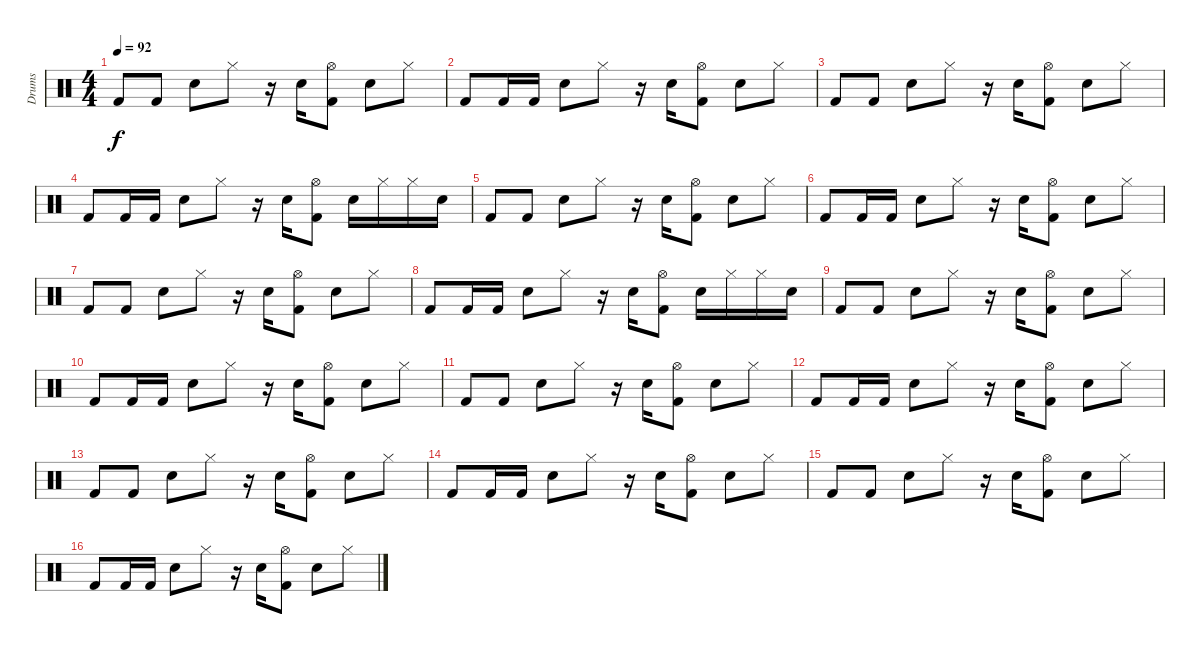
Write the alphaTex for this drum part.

\track ("Drums" "Drums") {instrument percussion}
\staff {score}
\articulation defaults
\ts (4 4)
\tempo 92
\clef neutral
\ks c "Kick (hit) 2".8{dy f} "Kick (hit) 2".8 "Snare (hit) 2".8 "Hi-Hat (closed)".8
r.16 "Snare (hit) 2".16 ("Hi-Hat (open)" "Kick (hit) 2").8 "Snare (hit) 2".8 "Hi-Hat (closed)".8 |
"Kick (hit) 2".8 "Kick (hit) 2".16 "Kick (hit) 2".16 "Snare (hit) 2".8 "Hi-Hat (closed)".8 r.16 "Snare (hit) 2".16 ("Hi-Hat (open)" "Kick (hit) 2").8 "Snare (hit) 2".8 "Hi-Hat (closed)".8 |
"Kick (hit) 2".8 "Kick (hit) 2".8 "Snare (hit) 2".8 "Hi-Hat (closed)".8 r.16 "Snare (hit) 2".16 ("Hi-Hat (open)" "Kick (hit) 2").8 "Snare (hit) 2".8 "Hi-Hat (closed)".8 |
"Kick (hit) 2".8 "Kick (hit) 2".16 "Kick (hit) 2".16 "Snare (hit) 2".8 "Hi-Hat (closed)".8 r.16 "Snare (hit) 2".16 ("Hi-Hat (open)" "Kick (hit) 2").8 "Snare (hit) 2".16 "Hi-Hat (closed)".16 "Hi-Hat (closed)".16 "Snare (hit) 2".16 |
"Kick (hit) 2".8 "Kick (hit) 2".8 "Snare (hit) 2".8 "Hi-Hat (closed)".8 r.16 "Snare (hit) 2".16 ("Hi-Hat (open)" "Kick (hit) 2").8 "Snare (hit) 2".8 "Hi-Hat (closed)".8 |
"Kick (hit) 2".8 "Kick (hit) 2".16 "Kick (hit) 2".16 "Snare (hit) 2".8 "Hi-Hat (closed)".8 r.16 "Snare (hit) 2".16 ("Hi-Hat (open)" "Kick (hit) 2").8 "Snare (hit) 2".8 "Hi-Hat (closed)".8 |
"Kick (hit) 2".8 "Kick (hit) 2".8 "Snare (hit) 2".8 "Hi-Hat (closed)".8 r.16 "Snare (hit) 2".16 ("Hi-Hat (open)" "Kick (hit) 2").8 "Snare (hit) 2".8 "Hi-Hat (closed)".8 |
"Kick (hit) 2".8 "Kick (hit) 2".16 "Kick (hit) 2".16 "Snare (hit) 2".8 "Hi-Hat (closed)".8 r.16 "Snare (hit) 2".16 ("Hi-Hat (open)" "Kick (hit) 2").8 "Snare (hit) 2".16 "Hi-Hat (closed)".16 "Hi-Hat (closed)".16 "Snare (hit) 2".16 |
"Kick (hit) 2".8 "Kick (hit) 2".8 "Snare (hit) 2".8 "Hi-Hat (closed)".8 r.16 "Snare (hit) 2".16 ("Hi-Hat (open)" "Kick (hit) 2").8 "Snare (hit) 2".8 "Hi-Hat (closed)".8 |
"Kick (hit) 2".8 "Kick (hit) 2".16 "Kick (hit) 2".16 "Snare (hit) 2".8 "Hi-Hat (closed)".8 r.16 "Snare (hit) 2".16 ("Hi-Hat (open)" "Kick (hit) 2").8 "Snare (hit) 2".8 "Hi-Hat (closed)".8 |
"Kick (hit) 2".8 "Kick (hit) 2".8 "Snare (hit) 2".8 "Hi-Hat (closed)".8 r.16 "Snare (hit) 2".16 ("Hi-Hat (open)" "Kick (hit) 2").8 "Snare (hit) 2".8 "Hi-Hat (closed)".8 |
"Kick (hit) 2".8 "Kick (hit) 2".16 "Kick (hit) 2".16 "Snare (hit) 2".8 "Hi-Hat (closed)".8 r.16 "Snare (hit) 2".16 ("Hi-Hat (open)" "Kick (hit) 2").8 "Snare (hit) 2".8 "Hi-Hat (closed)".8 |
"Kick (hit) 2".8 "Kick (hit) 2".8 "Snare (hit) 2".8 "Hi-Hat (closed)".8 r.16 "Snare (hit) 2".16 ("Hi-Hat (open)" "Kick (hit) 2").8 "Snare (hit) 2".8 "Hi-Hat (closed)".8 |
"Kick (hit) 2".8 "Kick (hit) 2".16 "Kick (hit) 2".16 "Snare (hit) 2".8 "Hi-Hat (closed)".8 r.16 "Snare (hit) 2".16 ("Hi-Hat (open)" "Kick (hit) 2").8 "Snare (hit) 2".8 "Hi-Hat (closed)".8 |
"Kick (hit) 2".8 "Kick (hit) 2".8 "Snare (hit) 2".8 "Hi-Hat (closed)".8 r.16 "Snare (hit) 2".16 ("Hi-Hat (open)" "Kick (hit) 2").8 "Snare (hit) 2".8 "Hi-Hat (closed)".8 |
"Kick (hit) 2".8 "Kick (hit) 2".16 "Kick (hit) 2".16 "Snare (hit) 2".8 "Hi-Hat (closed)".8 r.16 "Snare (hit) 2".16 ("Hi-Hat (open)" "Kick (hit) 2").8 "Snare (hit) 2".8 "Hi-Hat (closed)".8
